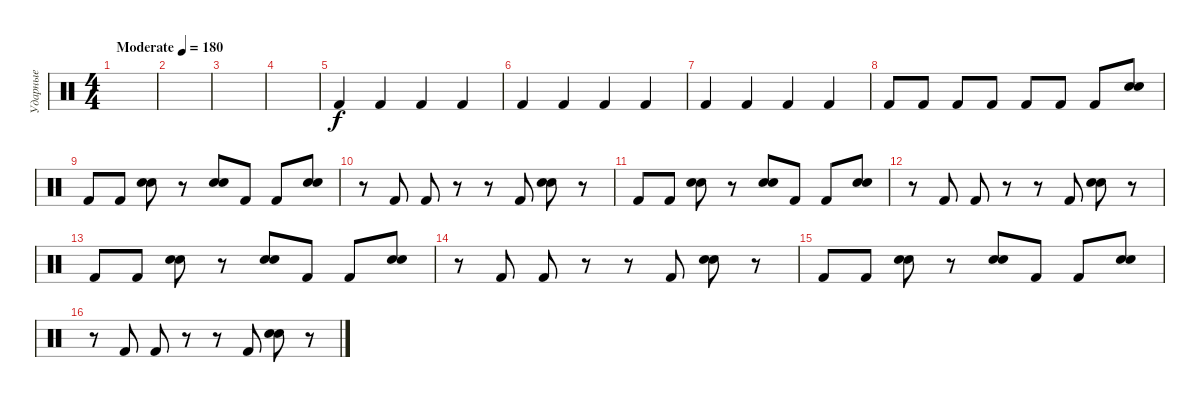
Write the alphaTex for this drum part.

\track ("Ударные" "Ударные") {instrument percussion}
\staff {score}
\articulation defaults
\ts (4 4)
\tempo (180 "Moderate")
\clef neutral
\ks c
|
|
|
|
"Kick (hit) 2".4 "Kick (hit) 2".4 "Kick (hit) 2".4 "Kick (hit) 2".4 |
"Kick (hit) 2".4 "Kick (hit) 2".4 "Kick (hit) 2".4 "Kick (hit) 2".4 |
"Kick (hit) 2".4 "Kick (hit) 2".4 "Kick (hit) 2".4 "Kick (hit) 2".4 |
"Kick (hit) 2".8 "Kick (hit) 2".8 "Kick (hit) 2".8 "Kick (hit) 2".8 "Kick (hit) 2".8 "Kick (hit) 2".8 "Kick (hit) 2".8 ("Electric Snare (hit)" "Snare (hit) 2").8 |
"Kick (hit) 2".8 "Kick (hit) 2".8 ("Electric Snare (hit)" "Snare (hit) 2").8 r.8 ("Electric Snare (hit)" "Snare (hit) 2").8 "Kick (hit) 2".8 "Kick (hit) 2".8 ("Electric Snare (hit)" "Snare (hit) 2").8 |
r.8 "Kick (hit) 2".8 "Kick (hit) 2".8 r.8 r.8 "Kick (hit) 2".8 ("Electric Snare (hit)" "Snare (hit) 2").8 r.8 |
"Kick (hit) 2".8 "Kick (hit) 2".8 ("Electric Snare (hit)" "Snare (hit) 2").8 r.8 ("Electric Snare (hit)" "Snare (hit) 2").8 "Kick (hit) 2".8 "Kick (hit) 2".8 ("Electric Snare (hit)" "Snare (hit) 2").8 |
r.8 "Kick (hit) 2".8 "Kick (hit) 2".8 r.8 r.8 "Kick (hit) 2".8 ("Electric Snare (hit)" "Snare (hit) 2").8 r.8 |
"Kick (hit) 2".8 "Kick (hit) 2".8 ("Electric Snare (hit)" "Snare (hit) 2").8 r.8 ("Electric Snare (hit)" "Snare (hit) 2").8 "Kick (hit) 2".8 "Kick (hit) 2".8 ("Electric Snare (hit)" "Snare (hit) 2").8 |
r.8 "Kick (hit) 2".8 "Kick (hit) 2".8 r.8 r.8 "Kick (hit) 2".8 ("Electric Snare (hit)" "Snare (hit) 2").8 r.8 |
"Kick (hit) 2".8 "Kick (hit) 2".8 ("Electric Snare (hit)" "Snare (hit) 2").8 r.8 ("Electric Snare (hit)" "Snare (hit) 2").8 "Kick (hit) 2".8 "Kick (hit) 2".8 ("Electric Snare (hit)" "Snare (hit) 2").8 |
r.8 "Kick (hit) 2".8 "Kick (hit) 2".8 r.8 r.8 "Kick (hit) 2".8 ("Electric Snare (hit)" "Snare (hit) 2").8 r.8
